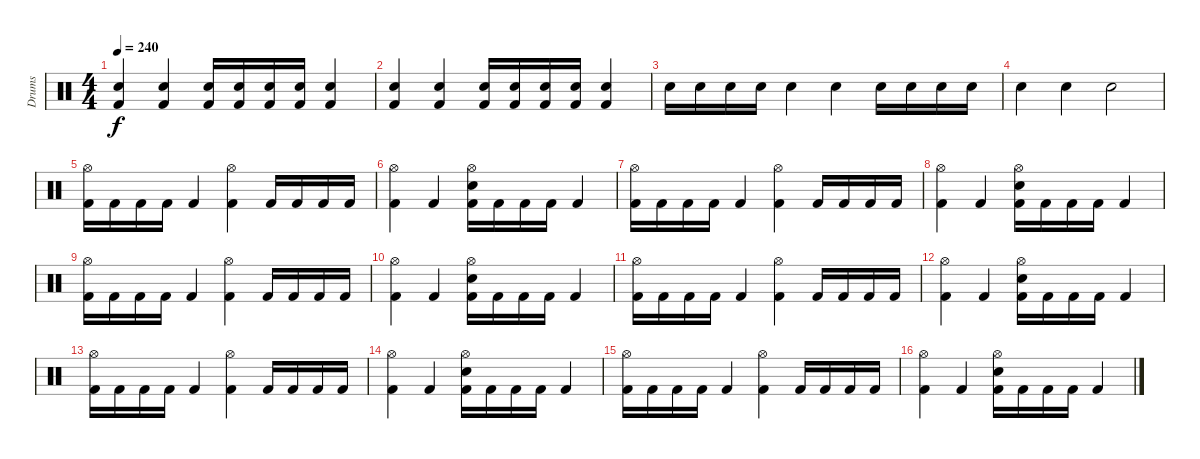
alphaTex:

\track ("Drums" "Drums") {instrument percussion}
\staff {score}
\articulation defaults
\ts (4 4)
\tempo 240
\clef neutral
\ks c
("Snare (hit) 2" "Kick (hit) 2").4{dy f} ("Snare (hit) 2" "Kick (hit) 2").4 ("Snare (hit) 2" "Kick (hit) 2").16 ("Snare (hit) 2" "Kick (hit) 2").16 ("Snare (hit) 2" "Kick (hit) 2").16 ("Snare (hit) 2" "Kick (hit) 2").16 ("Snare (hit) 2" "Kick (hit) 2").4 |
("Snare (hit) 2" "Kick (hit) 2").4 ("Snare (hit) 2" "Kick (hit) 2").4 ("Snare (hit) 2" "Kick (hit) 2").16 ("Snare (hit) 2" "Kick (hit) 2").16 ("Snare (hit) 2" "Kick (hit) 2").16 ("Snare (hit) 2" "Kick (hit) 2").16 ("Snare (hit) 2" "Kick (hit) 2").4 |
"Snare (hit) 2".16 "Snare (hit) 2".16 "Snare (hit) 2".16 "Snare (hit) 2".16 "Snare (hit) 2".4 "Snare (hit) 2".4 "Snare (hit) 2".16 "Snare (hit) 2".16 "Snare (hit) 2".16 "Snare (hit) 2".16 |
"Snare (hit) 2".4 "Snare (hit) 2".4 "Snare (hit) 2".2 |
("Hi-Hat (open)" "Kick (hit) 2").16 "Kick (hit) 2".16 "Kick (hit) 2".16 "Kick (hit) 2".16 "Kick (hit) 2".4 ("Hi-Hat (open)" "Kick (hit) 2").4 "Kick (hit) 2".16 "Kick (hit) 2".16 "Kick (hit) 2".16 "Kick (hit) 2".16 |
("Hi-Hat (open)" "Kick (hit) 2").4 "Kick (hit) 2".4 ("Hi-Hat (open)" "Snare (hit) 2" "Kick (hit) 2").16 "Kick (hit) 2".16 "Kick (hit) 2".16 "Kick (hit) 2".16 "Kick (hit) 2".4 |
("Hi-Hat (open)" "Kick (hit) 2").16 "Kick (hit) 2".16 "Kick (hit) 2".16 "Kick (hit) 2".16 "Kick (hit) 2".4 ("Hi-Hat (open)" "Kick (hit) 2").4 "Kick (hit) 2".16 "Kick (hit) 2".16 "Kick (hit) 2".16 "Kick (hit) 2".16 |
("Hi-Hat (open)" "Kick (hit) 2").4 "Kick (hit) 2".4 ("Hi-Hat (open)" "Snare (hit) 2" "Kick (hit) 2").16 "Kick (hit) 2".16 "Kick (hit) 2".16 "Kick (hit) 2".16 "Kick (hit) 2".4 |
("Hi-Hat (open)" "Kick (hit) 2").16 "Kick (hit) 2".16 "Kick (hit) 2".16 "Kick (hit) 2".16 "Kick (hit) 2".4 ("Hi-Hat (open)" "Kick (hit) 2").4 "Kick (hit) 2".16 "Kick (hit) 2".16 "Kick (hit) 2".16 "Kick (hit) 2".16 |
("Hi-Hat (open)" "Kick (hit) 2").4 "Kick (hit) 2".4 ("Hi-Hat (open)" "Snare (hit) 2" "Kick (hit) 2").16 "Kick (hit) 2".16 "Kick (hit) 2".16 "Kick (hit) 2".16 "Kick (hit) 2".4 |
("Hi-Hat (open)" "Kick (hit) 2").16 "Kick (hit) 2".16 "Kick (hit) 2".16 "Kick (hit) 2".16 "Kick (hit) 2".4 ("Hi-Hat (open)" "Kick (hit) 2").4 "Kick (hit) 2".16 "Kick (hit) 2".16 "Kick (hit) 2".16 "Kick (hit) 2".16 |
("Hi-Hat (open)" "Kick (hit) 2").4 "Kick (hit) 2".4 ("Hi-Hat (open)" "Snare (hit) 2" "Kick (hit) 2").16 "Kick (hit) 2".16 "Kick (hit) 2".16 "Kick (hit) 2".16 "Kick (hit) 2".4 |
("Hi-Hat (open)" "Kick (hit) 2").16 "Kick (hit) 2".16 "Kick (hit) 2".16 "Kick (hit) 2".16 "Kick (hit) 2".4 ("Hi-Hat (open)" "Kick (hit) 2").4 "Kick (hit) 2".16 "Kick (hit) 2".16 "Kick (hit) 2".16 "Kick (hit) 2".16 |
("Hi-Hat (open)" "Kick (hit) 2").4 "Kick (hit) 2".4 ("Hi-Hat (open)" "Snare (hit) 2" "Kick (hit) 2").16 "Kick (hit) 2".16 "Kick (hit) 2".16 "Kick (hit) 2".16 "Kick (hit) 2".4 |
("Hi-Hat (open)" "Kick (hit) 2").16 "Kick (hit) 2".16 "Kick (hit) 2".16 "Kick (hit) 2".16 "Kick (hit) 2".4 ("Hi-Hat (open)" "Kick (hit) 2").4 "Kick (hit) 2".16 "Kick (hit) 2".16 "Kick (hit) 2".16 "Kick (hit) 2".16 |
("Hi-Hat (open)" "Kick (hit) 2").4 "Kick (hit) 2".4 ("Hi-Hat (open)" "Snare (hit) 2" "Kick (hit) 2").16 "Kick (hit) 2".16 "Kick (hit) 2".16 "Kick (hit) 2".16 "Kick (hit) 2".4
